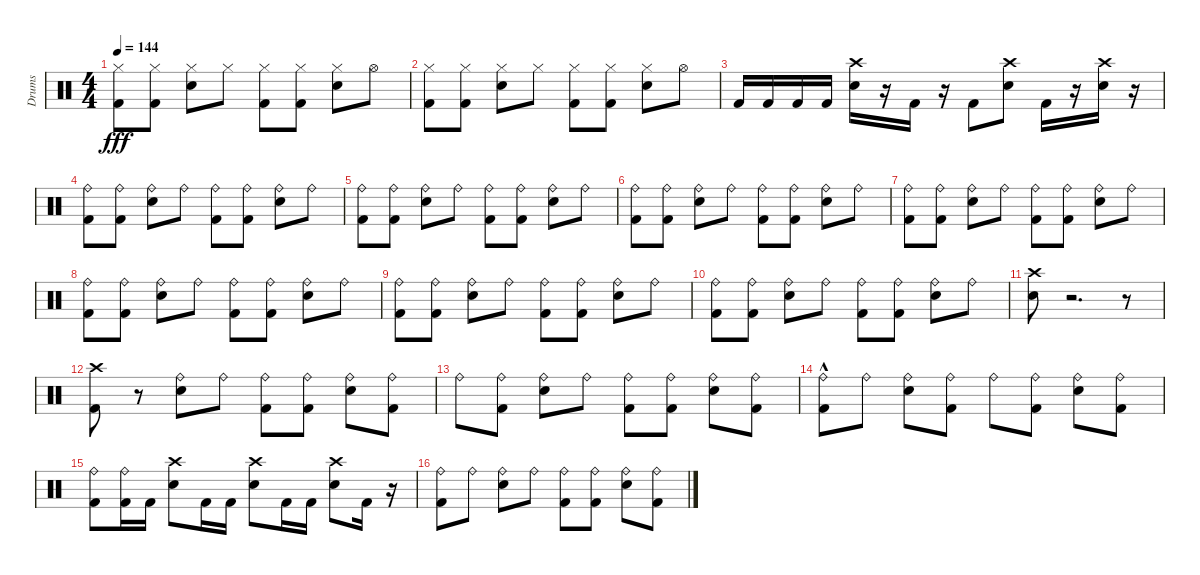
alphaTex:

\track ("Drums" "Drums") {instrument percussion}
\staff {score}
\articulation defaults
\ts (4 4)
\tempo 144
\clef neutral
\ks c
("Kick (hit) 2" "Hi-Hat (closed)").8{dy fff} ("Kick (hit) 2" "Hi-Hat (closed)").8 ("Snare (hit) 2" "Hi-Hat (closed)").8 "Hi-Hat (closed)".8 ("Kick (hit) 2" "Hi-Hat (closed)").8 ("Kick (hit) 2" "Hi-Hat (closed)").8 ("Snare (hit) 2" "Hi-Hat (closed)").8 "Hi-Hat (open)".8 |
("Hi-Hat (closed)" "Kick (hit) 2").8 ("Kick (hit) 2" "Hi-Hat (closed)").8 ("Snare (hit) 2" "Hi-Hat (closed)").8 "Hi-Hat (closed)".8 ("Kick (hit) 2" "Hi-Hat (closed)").8 ("Kick (hit) 2" "Hi-Hat (closed)").8 ("Snare (hit) 2" "Hi-Hat (closed)").8 "Hi-Hat (open)".8 |
"Kick (hit) 2".16 "Kick (hit) 2".16 "Kick (hit) 2".16 "Kick (hit) 2".16 ("Snare (hit) 2" "Crash high (hit)").16 r.16 "Kick (hit) 2".16 r.16 "Kick (hit) 2".8 ("Snare (hit) 2" "Crash high (hit)").8 "Kick (hit) 2".16 r.16 ("Snare (hit) 2" "Crash high (hit)").16 r.16 |
("Ride (bell)" "Kick (hit) 2").8 ("Kick (hit) 2" "Ride (bell)").8 ("Snare (hit) 2" "Ride (bell)").8 "Ride (bell)".8 ("Kick (hit) 2" "Ride (bell)").8 ("Kick (hit) 2" "Ride (bell)").8 ("Snare (hit) 2" "Ride (bell)").8 "Ride (bell)".8 |
("Ride (bell)" "Kick (hit) 2").8 ("Kick (hit) 2" "Ride (bell)").8 ("Snare (hit) 2" "Ride (bell)").8 "Ride (bell)".8 ("Kick (hit) 2" "Ride (bell)").8 ("Kick (hit) 2" "Ride (bell)").8 ("Snare (hit) 2" "Ride (bell)").8 "Ride (bell)".8 |
("Ride (bell)" "Kick (hit) 2").8 ("Kick (hit) 2" "Ride (bell)").8 ("Snare (hit) 2" "Ride (bell)").8 "Ride (bell)".8 ("Kick (hit) 2" "Ride (bell)").8 ("Kick (hit) 2" "Ride (bell)").8 ("Snare (hit) 2" "Ride (bell)").8 "Ride (bell)".8 |
("Ride (bell)" "Kick (hit) 2").8 ("Kick (hit) 2" "Ride (bell)").8 ("Snare (hit) 2" "Ride (bell)").8 "Ride (bell)".8 ("Kick (hit) 2" "Ride (bell)").8 ("Kick (hit) 2" "Ride (bell)").8 ("Snare (hit) 2" "Ride (bell)").8 "Ride (bell)".8 |
("Ride (bell)" "Kick (hit) 2").8 ("Kick (hit) 2" "Ride (bell)").8 ("Snare (hit) 2" "Ride (bell)").8 "Ride (bell)".8 ("Kick (hit) 2" "Ride (bell)").8 ("Kick (hit) 2" "Ride (bell)").8 ("Snare (hit) 2" "Ride (bell)").8 "Ride (bell)".8 |
("Kick (hit) 2" "Ride (bell)").8 ("Kick (hit) 2" "Ride (bell)").8 ("Snare (hit) 2" "Ride (bell)").8 "Ride (bell)".8 ("Kick (hit) 2" "Ride (bell)").8 ("Kick (hit) 2" "Ride (bell)").8 ("Snare (hit) 2" "Ride (bell)").8 "Ride (bell)".8 |
("Kick (hit) 2" "Ride (bell)").8 ("Kick (hit) 2" "Ride (bell)").8 ("Snare (hit) 2" "Ride (bell)").8 "Ride (bell)".8 ("Kick (hit) 2" "Ride (bell)").8 ("Kick (hit) 2" "Ride (bell)").8 ("Snare (hit) 2" "Ride (bell)").8 "Ride (bell)".8 |
("Snare (hit) 2" "Crash high (hit)").8 r.2{d} r.8 |
("Kick (hit) 2" "Crash high (hit)").8 r.8 ("Ride (bell)" "Snare (hit) 2").8 "Ride (bell)".8 ("Ride (bell)" "Kick (hit) 2").8 ("Ride (bell)" "Kick (hit) 2").8 ("Ride (bell)" "Snare (hit) 2").8 ("Ride (bell)" "Kick (hit) 2").8 |
"Ride (bell)".8 ("Ride (bell)" "Kick (hit) 2").8 ("Ride (bell)" "Snare (hit) 2").8 "Ride (bell)".8 ("Ride (bell)" "Kick (hit) 2").8 ("Ride (bell)" "Kick (hit) 2").8 ("Ride (bell)" "Snare (hit) 2").8 ("Ride (bell)" "Kick (hit) 2").8 |
("Ride (bell)" "Kick (hit) 2"{hac}).8 "Ride (bell)".8 ("Ride (bell)" "Snare (hit) 2").8 ("Ride (bell)" "Kick (hit) 2").8 "Ride (bell)".8 ("Ride (bell)" "Kick (hit) 2").8 ("Ride (bell)" "Snare (hit) 2").8 ("Ride (bell)" "Kick (hit) 2").8 |
("Ride (bell)" "Kick (hit) 2").8 ("Ride (bell)" "Kick (hit) 2").16 "Kick (hit) 2".16 ("Snare (hit) 2" "Crash high (hit)").8 "Kick (hit) 2".16 "Kick (hit) 2".16 ("Snare (hit) 2" "Crash high (hit)").8 "Kick (hit) 2".16 "Kick (hit) 2".16 ("Snare (hit) 2" "Crash high (hit)").8 "Kick (hit) 2".16 r.16 |
("Ride (bell)" "Kick (hit) 2").8 "Ride (bell)".8 ("Ride (bell)" "Snare (hit) 2").8 "Ride (bell)".8 ("Ride (bell)" "Kick (hit) 2").8 ("Ride (bell)" "Kick (hit) 2").8 ("Ride (bell)" "Snare (hit) 2").8 ("Ride (bell)" "Kick (hit) 2").8
